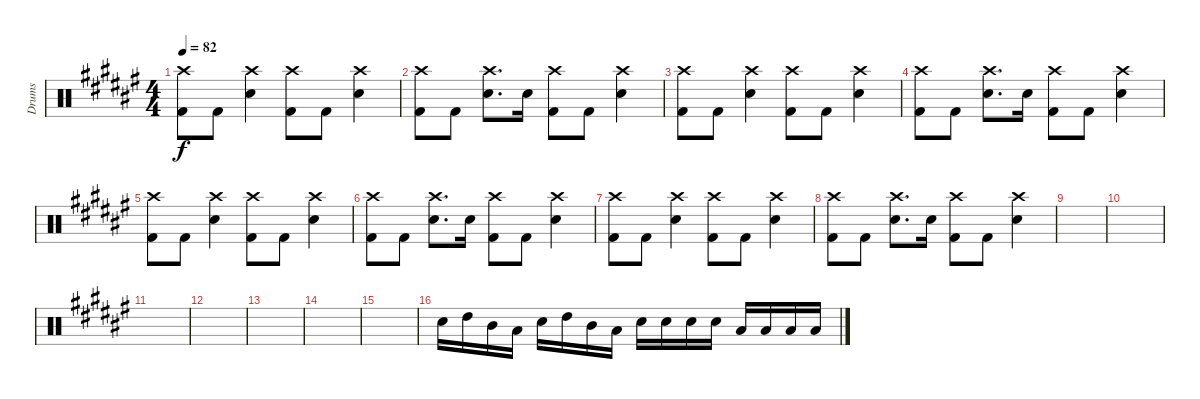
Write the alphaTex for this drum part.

\track ("Drums" "Drums") {instrument percussion}
\staff {score}
\articulation defaults
\ts (4 4)
\tempo 82
\clef neutral
\ks f#
("Crash high (hit)" "Kick (hit) 2").8{dy f} "Kick (hit) 2".8 ("Crash high (hit)" "Electric Snare (hit)").4 ("Crash high (hit)" "Kick (hit) 2").8 "Kick (hit) 2".8 ("Crash high (hit)" "Electric Snare (hit)").4 |
("Crash high (hit)" "Kick (hit) 2").8 "Kick (hit) 2".8 ("Crash high (hit)" "Electric Snare (hit)").8{d} "Electric Snare (hit)".16 ("Crash high (hit)" "Kick (hit) 2").8 "Kick (hit) 2".8 ("Crash high (hit)" "Electric Snare (hit)").4 |
("Crash high (hit)" "Kick (hit) 2").8 "Kick (hit) 2".8 ("Crash high (hit)" "Electric Snare (hit)").4 ("Crash high (hit)" "Kick (hit) 2").8 "Kick (hit) 2".8 ("Crash high (hit)" "Electric Snare (hit)").4 |
("Crash high (hit)" "Kick (hit) 2").8 "Kick (hit) 2".8 ("Crash high (hit)" "Electric Snare (hit)").8{d} "Electric Snare (hit)".16 ("Crash high (hit)" "Kick (hit) 2").8 "Kick (hit) 2".8 ("Crash high (hit)" "Electric Snare (hit)").4 |
("Crash high (hit)" "Kick (hit) 2").8 "Kick (hit) 2".8 ("Crash high (hit)" "Electric Snare (hit)").4 ("Crash high (hit)" "Kick (hit) 2").8 "Kick (hit) 2".8 ("Crash high (hit)" "Electric Snare (hit)").4 |
("Crash high (hit)" "Kick (hit) 2").8 "Kick (hit) 2".8 ("Crash high (hit)" "Electric Snare (hit)").8{d} "Electric Snare (hit)".16 ("Crash high (hit)" "Kick (hit) 2").8 "Kick (hit) 2".8 ("Crash high (hit)" "Electric Snare (hit)").4 |
("Crash high (hit)" "Kick (hit) 2").8 "Kick (hit) 2".8 ("Crash high (hit)" "Electric Snare (hit)").4 ("Crash high (hit)" "Kick (hit) 2").8 "Kick (hit) 2".8 ("Crash high (hit)" "Electric Snare (hit)").4 |
("Crash high (hit)" "Kick (hit) 2").8 "Kick (hit) 2".8 ("Crash high (hit)" "Electric Snare (hit)").8{d} "Electric Snare (hit)".16 ("Crash high (hit)" "Kick (hit) 2").8 "Kick (hit) 2".8 ("Crash high (hit)" "Electric Snare (hit)").4 |
|
|
|
|
|
|
|
"Electric Snare (hit)".16 "High Tom (hit)".16 "Mid Tom (hit)".16 "Low Tom (hit)".16 "Electric Snare (hit)".16 "High Tom (hit)".16 "Mid Tom (hit)".16 "Low Tom (hit)".16 "Electric Snare (hit)".16 "Electric Snare (hit)".16 "Electric Snare (hit)".16 "Electric Snare (hit)".16 "Low Tom (hit)".16 "Low Tom (hit)".16 "Low Tom (hit)".16 "Low Tom (hit)".16
